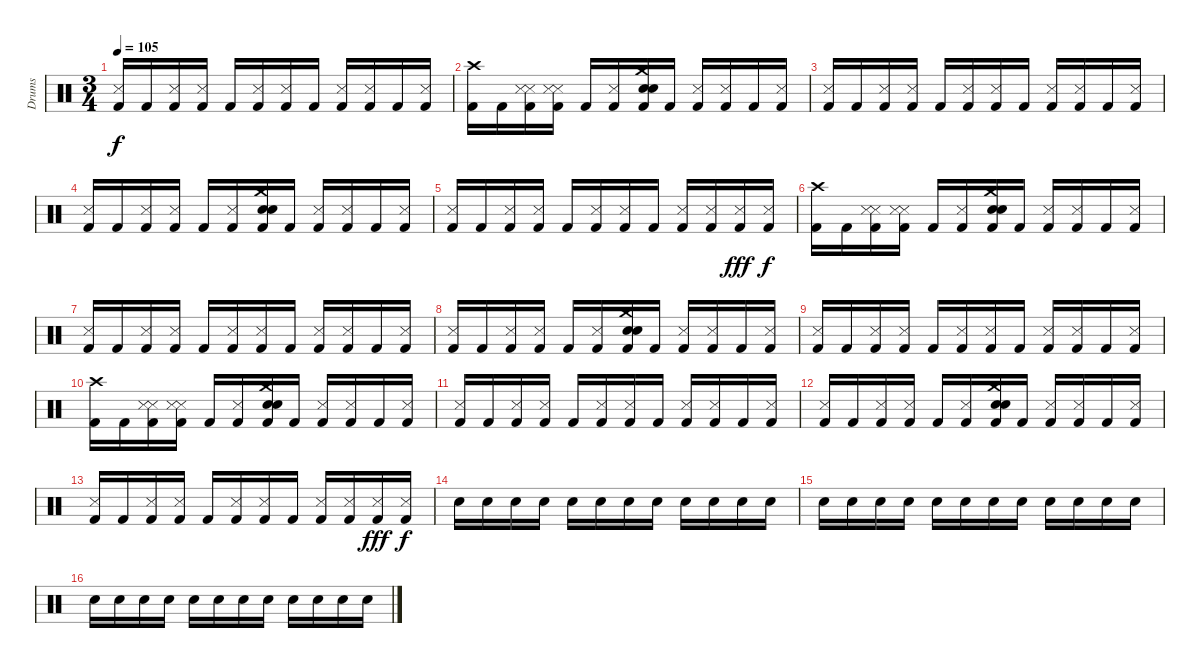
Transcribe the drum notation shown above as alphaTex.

\track ("Drums" "Drums") {instrument percussion}
\staff {score}
\articulation defaults
\ts (3 4)
\tempo 105
\clef neutral
\ks c
("Snare (side stick) 3" "Kick (hit) 2").16{dy f} "Kick (hit) 2".16 ("Snare (side stick) 3" "Kick (hit) 2").16 ("Snare (side stick) 3" "Kick (hit) 2").16 "Kick (hit) 2".16 ("Snare (side stick) 3" "Kick (hit) 2").16 ("Snare (side stick) 3" "Kick (hit) 2").16 "Kick (hit) 2".16 ("Snare (side stick) 3" "Kick (hit) 2").16 ("Snare (side stick) 3" "Kick (hit) 2").16 "Kick (hit) 2".16 ("Snare (side stick) 3" "Kick (hit) 2").16 |
("Crash high (hit)" "Kick (hit) 2").16 "Kick (hit) 2".16 ("Snare (side stick) 3" "Snare (side stick) 3" "Kick (hit) 2").16 ("Snare (side stick) 3" "Snare (side stick) 3" "Kick (hit) 2").16 "Kick (hit) 2".16 ("Snare (side stick) 3" "Kick (hit) 2").16 ("Crash medium (hit)" "Snare (hit) 2" "Snare (hit) 2" "Kick (hit) 2").16 "Kick (hit) 2".16 ("Snare (side stick) 3" "Kick (hit) 2").16 ("Snare (side stick) 3" "Kick (hit) 2").16 "Kick (hit) 2".16 ("Snare (side stick) 3" "Kick (hit) 2").16 |
("Snare (side stick) 3" "Kick (hit) 2").16 "Kick (hit) 2".16 ("Snare (side stick) 3" "Kick (hit) 2").16 ("Snare (side stick) 3" "Kick (hit) 2").16 "Kick (hit) 2".16 ("Snare (side stick) 3" "Kick (hit) 2").16 ("Snare (side stick) 3" "Kick (hit) 2").16 "Kick (hit) 2".16 ("Snare (side stick) 3" "Kick (hit) 2").16 ("Snare (side stick) 3" "Kick (hit) 2").16 "Kick (hit) 2".16 ("Snare (side stick) 3" "Kick (hit) 2").16 |
("Snare (side stick) 3" "Kick (hit) 2").16 "Kick (hit) 2".16 ("Snare (side stick) 3" "Kick (hit) 2").16 ("Snare (side stick) 3" "Kick (hit) 2").16 "Kick (hit) 2".16 ("Snare (side stick) 3" "Kick (hit) 2").16 ("Crash medium (hit)" "Snare (hit) 2" "Snare (hit) 2" "Kick (hit) 2").16 "Kick (hit) 2".16 ("Snare (side stick) 3" "Kick (hit) 2").16 ("Snare (side stick) 3" "Kick (hit) 2").16 "Kick (hit) 2".16 ("Snare (side stick) 3" "Kick (hit) 2").16 |
("Snare (side stick) 3" "Kick (hit) 2").16 "Kick (hit) 2".16 ("Snare (side stick) 3" "Kick (hit) 2").16 ("Snare (side stick) 3" "Kick (hit) 2").16 "Kick (hit) 2".16 ("Snare (side stick) 3" "Kick (hit) 2").16 ("Snare (side stick) 3" "Kick (hit) 2").16 "Kick (hit) 2".16 ("Snare (side stick) 3" "Kick (hit) 2").16 ("Snare (side stick) 3" "Kick (hit) 2").16 ("Snare (side stick) 3" "Kick (hit) 2").16{dy fff} ("Snare (side stick) 3" "Kick (hit) 2").16{dy f} |
("Crash high (hit)" "Kick (hit) 2").16 "Kick (hit) 2".16 ("Snare (side stick) 3" "Snare (side stick) 3" "Kick (hit) 2").16 ("Snare (side stick) 3" "Snare (side stick) 3" "Kick (hit) 2").16 "Kick (hit) 2".16 ("Snare (side stick) 3" "Kick (hit) 2").16 ("Crash medium (hit)" "Snare (hit) 2" "Snare (hit) 2" "Kick (hit) 2").16 "Kick (hit) 2".16 ("Snare (side stick) 3" "Kick (hit) 2").16 ("Snare (side stick) 3" "Kick (hit) 2").16 "Kick (hit) 2".16 ("Snare (side stick) 3" "Kick (hit) 2").16 |
("Snare (side stick) 3" "Kick (hit) 2").16 "Kick (hit) 2".16 ("Snare (side stick) 3" "Kick (hit) 2").16 ("Snare (side stick) 3" "Kick (hit) 2").16 "Kick (hit) 2".16 ("Snare (side stick) 3" "Kick (hit) 2").16 ("Snare (side stick) 3" "Kick (hit) 2").16 "Kick (hit) 2".16 ("Snare (side stick) 3" "Kick (hit) 2").16 ("Snare (side stick) 3" "Kick (hit) 2").16 "Kick (hit) 2".16 ("Snare (side stick) 3" "Kick (hit) 2").16 |
("Snare (side stick) 3" "Kick (hit) 2").16 "Kick (hit) 2".16 ("Snare (side stick) 3" "Kick (hit) 2").16 ("Snare (side stick) 3" "Kick (hit) 2").16 "Kick (hit) 2".16 ("Snare (side stick) 3" "Kick (hit) 2").16 ("Crash medium (hit)" "Snare (hit) 2" "Snare (hit) 2" "Kick (hit) 2").16 "Kick (hit) 2".16 ("Snare (side stick) 3" "Kick (hit) 2").16 ("Snare (side stick) 3" "Kick (hit) 2").16 "Kick (hit) 2".16 ("Snare (side stick) 3" "Kick (hit) 2").16 |
("Snare (side stick) 3" "Kick (hit) 2").16 "Kick (hit) 2".16 ("Snare (side stick) 3" "Kick (hit) 2").16 ("Snare (side stick) 3" "Kick (hit) 2").16 "Kick (hit) 2".16 ("Snare (side stick) 3" "Kick (hit) 2").16 ("Snare (side stick) 3" "Kick (hit) 2").16 "Kick (hit) 2".16 ("Snare (side stick) 3" "Kick (hit) 2").16 ("Snare (side stick) 3" "Kick (hit) 2").16 "Kick (hit) 2".16 ("Snare (side stick) 3" "Kick (hit) 2").16 |
("Crash high (hit)" "Kick (hit) 2").16 "Kick (hit) 2".16 ("Snare (side stick) 3" "Snare (side stick) 3" "Kick (hit) 2").16 ("Snare (side stick) 3" "Snare (side stick) 3" "Kick (hit) 2").16 "Kick (hit) 2".16 ("Snare (side stick) 3" "Kick (hit) 2").16 ("Crash medium (hit)" "Snare (hit) 2" "Snare (hit) 2" "Kick (hit) 2").16 "Kick (hit) 2".16 ("Snare (side stick) 3" "Kick (hit) 2").16 ("Snare (side stick) 3" "Kick (hit) 2").16 "Kick (hit) 2".16 ("Snare (side stick) 3" "Kick (hit) 2").16 |
("Snare (side stick) 3" "Kick (hit) 2").16 "Kick (hit) 2".16 ("Snare (side stick) 3" "Kick (hit) 2").16 ("Snare (side stick) 3" "Kick (hit) 2").16 "Kick (hit) 2".16 ("Snare (side stick) 3" "Kick (hit) 2").16 ("Snare (side stick) 3" "Kick (hit) 2").16 "Kick (hit) 2".16 ("Snare (side stick) 3" "Kick (hit) 2").16 ("Snare (side stick) 3" "Kick (hit) 2").16 "Kick (hit) 2".16 ("Snare (side stick) 3" "Kick (hit) 2").16 |
("Snare (side stick) 3" "Kick (hit) 2").16 "Kick (hit) 2".16 ("Snare (side stick) 3" "Kick (hit) 2").16 ("Snare (side stick) 3" "Kick (hit) 2").16 "Kick (hit) 2".16 ("Snare (side stick) 3" "Kick (hit) 2").16 ("Crash medium (hit)" "Snare (hit) 2" "Snare (hit) 2" "Kick (hit) 2").16 "Kick (hit) 2".16 ("Snare (side stick) 3" "Kick (hit) 2").16 ("Snare (side stick) 3" "Kick (hit) 2").16 "Kick (hit) 2".16 ("Snare (side stick) 3" "Kick (hit) 2").16 |
("Snare (side stick) 3" "Kick (hit) 2").16 "Kick (hit) 2".16 ("Snare (side stick) 3" "Kick (hit) 2").16 ("Snare (side stick) 3" "Kick (hit) 2").16 "Kick (hit) 2".16 ("Snare (side stick) 3" "Kick (hit) 2").16 ("Snare (side stick) 3" "Kick (hit) 2").16 "Kick (hit) 2".16 ("Snare (side stick) 3" "Kick (hit) 2").16 ("Snare (side stick) 3" "Kick (hit) 2").16 ("Snare (side stick) 3" "Kick (hit) 2").16{dy fff} ("Snare (side stick) 3" "Kick (hit) 2").16{dy f} |
"Snare (hit) 2".16 "Snare (hit) 2".16 "Snare (hit) 2".16 "Snare (hit) 2".16 "Snare (hit) 2".16 "Snare (hit) 2".16 "Snare (hit) 2".16 "Snare (hit) 2".16 "Snare (hit) 2".16 "Snare (hit) 2".16 "Snare (hit) 2".16 "Snare (hit) 2".16 |
"Snare (hit) 2".16 "Snare (hit) 2".16 "Snare (hit) 2".16 "Snare (hit) 2".16 "Snare (hit) 2".16 "Snare (hit) 2".16 "Snare (hit) 2".16 "Snare (hit) 2".16 "Snare (hit) 2".16 "Snare (hit) 2".16 "Snare (hit) 2".16 "Snare (hit) 2".16 |
"Snare (hit) 2".16 "Snare (hit) 2".16 "Snare (hit) 2".16 "Snare (hit) 2".16 "Snare (hit) 2".16 "Snare (hit) 2".16 "Snare (hit) 2".16 "Snare (hit) 2".16 "Snare (hit) 2".16 "Snare (hit) 2".16 "Snare (hit) 2".16 "Snare (hit) 2".16
